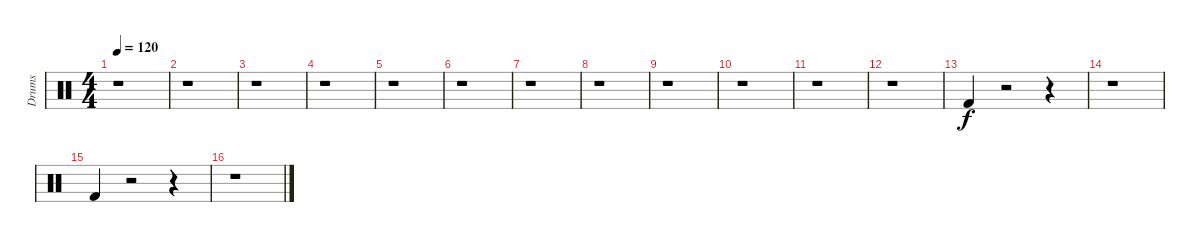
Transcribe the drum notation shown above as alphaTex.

\track ("Drums" "Drums") {instrument percussion}
\staff {score}
\articulation defaults
\ts (4 4)
\tempo 120
\clef neutral
\ks c
r.1{dy f} |
r.1 |
r.1 |
r.1 |
r.1 |
r.1 |
r.1 |
r.1 |
r.1 |
r.1 |
r.1 |
r.1 |
\section ("" "")
"Kick (hit) 2".4 r.2 r.4 |
r.1 |
"Kick (hit) 2".4 r.2 r.4 |
r.1
